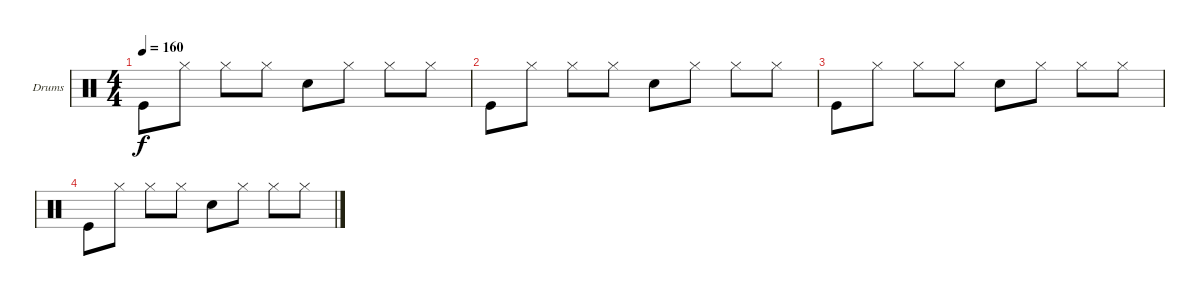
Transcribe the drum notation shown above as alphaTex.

\defaultSystemsLayout 4
\bracketExtendMode nobrackets
\firstSystemTrackNameOrientation horizontal
\otherSystemsTrackNameOrientation horizontal
\track ("Drumkit" "Drums") {instrument percussion}
\staff {score}
\articulation defaults
\ts (4 4)
\tempo 160
\clef neutral
\ks c "Kick (hit)".8{dy f} "Hi-Hat (closed)".8 "Hi-Hat (closed)".8 "Hi-Hat (closed)".8 "Snare (hit) 2".8 "Hi-Hat (closed)".8 "Hi-Hat (closed)".8 "Hi-Hat (closed)".8
|
"Kick (hit)".8 "Hi-Hat (closed)".8 "Hi-Hat (closed)".8 "Hi-Hat (closed)".8 "Snare (hit) 2".8 "Hi-Hat (closed)".8 "Hi-Hat (closed)".8 "Hi-Hat (closed)".8 |
"Kick (hit)".8 "Hi-Hat (closed)".8 "Hi-Hat (closed)".8 "Hi-Hat (closed)".8 "Snare (hit) 2".8 "Hi-Hat (closed)".8 "Hi-Hat (closed)".8 "Hi-Hat (closed)".8 |
"Kick (hit)".8 "Hi-Hat (closed)".8 "Hi-Hat (closed)".8 "Hi-Hat (closed)".8 "Snare (hit) 2".8 "Hi-Hat (closed)".8 "Hi-Hat (closed)".8 "Hi-Hat (closed)".8
